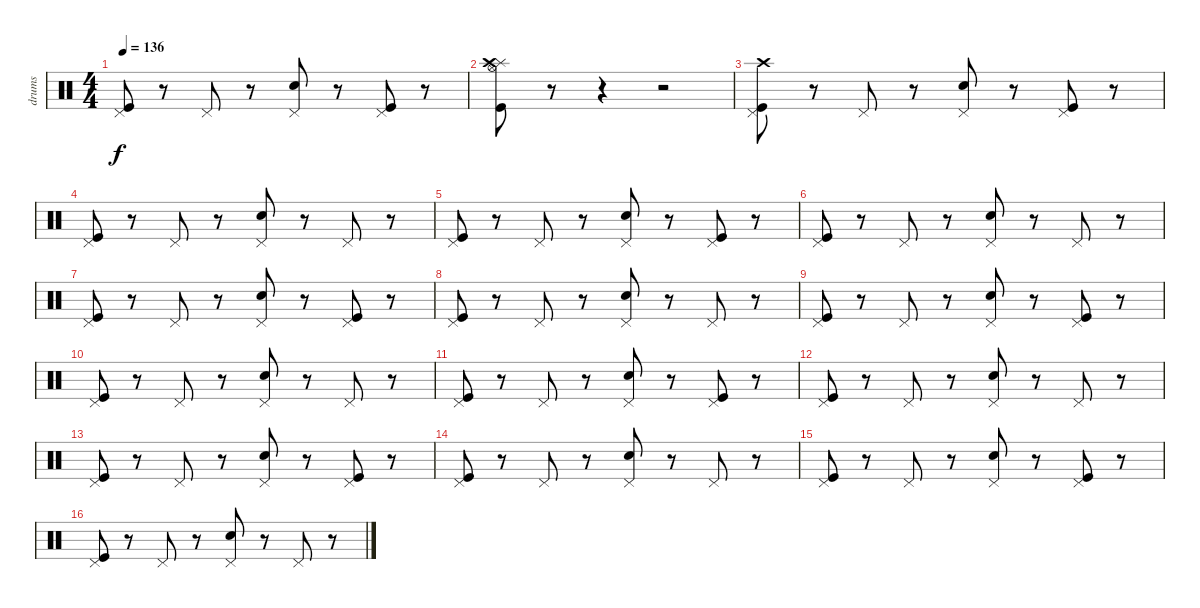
\track ("drums" "drums") {instrument percussion}
\staff {score}
\articulation defaults
\ts (4 4)
\tempo 136
\clef neutral
\ks c
("Kick (hit)" "Pedal Hi-Hat (hit)").8{dy f} r.8 "Pedal Hi-Hat (hit)".8 r.8 ("Snare (hit) 2" "Pedal Hi-Hat (hit)").8 r.8 ("Kick (hit)" "Pedal Hi-Hat (hit)").8 r.8 |
("Kick (hit)" "Splash (hit)" "Hi-Hat (open)" "Crash high (hit)").8 r.8 r.4 r.2 |
("Kick (hit)" "Crash high (hit)" "Pedal Hi-Hat (hit)").8 r.8 "Pedal Hi-Hat (hit)".8 r.8 ("Snare (hit) 2" "Pedal Hi-Hat (hit)").8 r.8 ("Kick (hit)" "Pedal Hi-Hat (hit)").8 r.8 |
("Kick (hit)" "Pedal Hi-Hat (hit)").8 r.8 "Pedal Hi-Hat (hit)".8 r.8 ("Snare (hit) 2" "Pedal Hi-Hat (hit)").8 r.8 "Pedal Hi-Hat (hit)".8 r.8 |
("Kick (hit)" "Pedal Hi-Hat (hit)").8 r.8 "Pedal Hi-Hat (hit)".8 r.8 ("Snare (hit) 2" "Pedal Hi-Hat (hit)").8 r.8 ("Kick (hit)" "Pedal Hi-Hat (hit)").8 r.8 |
("Kick (hit)" "Pedal Hi-Hat (hit)").8 r.8 "Pedal Hi-Hat (hit)".8 r.8 ("Snare (hit) 2" "Pedal Hi-Hat (hit)").8 r.8 "Pedal Hi-Hat (hit)".8 r.8 |
("Kick (hit)" "Pedal Hi-Hat (hit)").8 r.8 "Pedal Hi-Hat (hit)".8 r.8 ("Snare (hit) 2" "Pedal Hi-Hat (hit)").8 r.8 ("Kick (hit)" "Pedal Hi-Hat (hit)").8 r.8 |
("Kick (hit)" "Pedal Hi-Hat (hit)").8 r.8 "Pedal Hi-Hat (hit)".8 r.8 ("Snare (hit) 2" "Pedal Hi-Hat (hit)").8 r.8 "Pedal Hi-Hat (hit)".8 r.8 |
("Kick (hit)" "Pedal Hi-Hat (hit)").8 r.8 "Pedal Hi-Hat (hit)".8 r.8 ("Snare (hit) 2" "Pedal Hi-Hat (hit)").8 r.8 ("Kick (hit)" "Pedal Hi-Hat (hit)").8 r.8 |
("Kick (hit)" "Pedal Hi-Hat (hit)").8 r.8 "Pedal Hi-Hat (hit)".8 r.8 ("Snare (hit) 2" "Pedal Hi-Hat (hit)").8 r.8 "Pedal Hi-Hat (hit)".8 r.8 |
("Kick (hit)" "Pedal Hi-Hat (hit)").8 r.8 "Pedal Hi-Hat (hit)".8 r.8 ("Snare (hit) 2" "Pedal Hi-Hat (hit)").8 r.8 ("Kick (hit)" "Pedal Hi-Hat (hit)").8 r.8 |
("Kick (hit)" "Pedal Hi-Hat (hit)").8 r.8 "Pedal Hi-Hat (hit)".8 r.8 ("Snare (hit) 2" "Pedal Hi-Hat (hit)").8 r.8 "Pedal Hi-Hat (hit)".8 r.8 |
("Kick (hit)" "Pedal Hi-Hat (hit)").8 r.8 "Pedal Hi-Hat (hit)".8 r.8 ("Snare (hit) 2" "Pedal Hi-Hat (hit)").8 r.8 ("Kick (hit)" "Pedal Hi-Hat (hit)").8 r.8 |
("Kick (hit)" "Pedal Hi-Hat (hit)").8 r.8 "Pedal Hi-Hat (hit)".8 r.8 ("Snare (hit) 2" "Pedal Hi-Hat (hit)").8 r.8 "Pedal Hi-Hat (hit)".8 r.8 |
("Kick (hit)" "Pedal Hi-Hat (hit)").8 r.8 "Pedal Hi-Hat (hit)".8 r.8 ("Snare (hit) 2" "Pedal Hi-Hat (hit)").8 r.8 ("Kick (hit)" "Pedal Hi-Hat (hit)").8 r.8 |
("Kick (hit)" "Pedal Hi-Hat (hit)").8 r.8 "Pedal Hi-Hat (hit)".8 r.8 ("Snare (hit) 2" "Pedal Hi-Hat (hit)").8 r.8 "Pedal Hi-Hat (hit)".8 r.8
